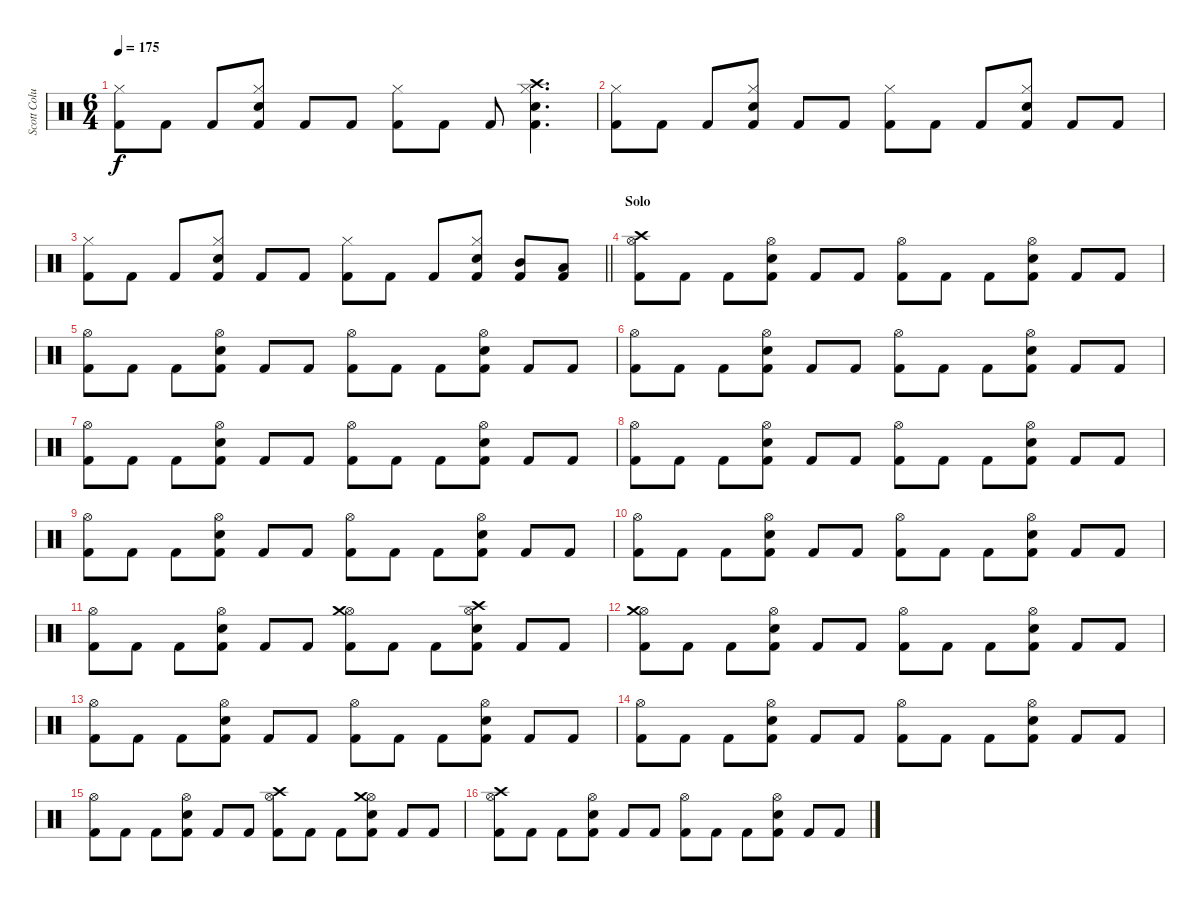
\track ("Scott Columbus" "Scott Colu") {instrument percussion}
\staff {score}
\articulation defaults
\ts (6 4)
\tempo 175
\clef neutral
\ks c
("Kick (hit) 2" "Hi-Hat (closed)").8{dy f} "Kick (hit) 2".8 "Kick (hit) 2".8 ("Kick (hit) 2" "Snare (hit) 2" "Hi-Hat (closed)").8 "Kick (hit) 2".8 "Kick (hit) 2".8 ("Kick (hit) 2" "Hi-Hat (closed)").8 "Kick (hit) 2".8 "Kick (hit) 2".8 ("Kick (hit) 2" "Snare (hit) 2" "Hi-Hat (closed)" "Crash high (hit)").4{d} |
("Kick (hit) 2" "Hi-Hat (closed)").8 "Kick (hit) 2".8 "Kick (hit) 2".8 ("Kick (hit) 2" "Snare (hit) 2" "Hi-Hat (closed)").8 "Kick (hit) 2".8 "Kick (hit) 2".8 ("Kick (hit) 2" "Hi-Hat (closed)").8 "Kick (hit) 2".8 "Kick (hit) 2".8 ("Kick (hit) 2" "Snare (hit) 2" "Hi-Hat (closed)").8 "Kick (hit) 2".8 "Kick (hit) 2".8 |
\barLineRight lightlight
("Kick (hit) 2" "Hi-Hat (closed)").8 "Kick (hit) 2".8 "Kick (hit) 2".8 ("Kick (hit) 2" "Snare (hit) 2" "Hi-Hat (closed)").8 "Kick (hit) 2".8 "Kick (hit) 2".8 ("Kick (hit) 2" "Hi-Hat (closed)").8 "Kick (hit) 2".8 "Kick (hit) 2".8 ("Kick (hit) 2" "Snare (hit) 2" "Hi-Hat (closed)").8 ("Kick (hit) 2" "Mid Tom (hit)").8 ("Kick (hit) 2" "Low Tom (hit)").8 |
\section ("" "Solo")
("Kick (hit) 2" "Hi-Hat (open)" "Crash high (hit)").8 "Kick (hit) 2".8 "Kick (hit) 2".8 ("Kick (hit) 2" "Snare (hit) 2" "Hi-Hat (open)").8 "Kick (hit) 2".8 "Kick (hit) 2".8 ("Kick (hit) 2" "Hi-Hat (open)").8 "Kick (hit) 2".8 "Kick (hit) 2".8 ("Kick (hit) 2" "Snare (hit) 2" "Hi-Hat (open)").8 "Kick (hit) 2".8 "Kick (hit) 2".8 |
("Kick (hit) 2" "Hi-Hat (open)").8 "Kick (hit) 2".8 "Kick (hit) 2".8 ("Kick (hit) 2" "Snare (hit) 2" "Hi-Hat (open)").8 "Kick (hit) 2".8 "Kick (hit) 2".8 ("Kick (hit) 2" "Hi-Hat (open)").8 "Kick (hit) 2".8 "Kick (hit) 2".8 ("Kick (hit) 2" "Snare (hit) 2" "Hi-Hat (open)").8 "Kick (hit) 2".8 "Kick (hit) 2".8 |
("Kick (hit) 2" "Hi-Hat (open)").8 "Kick (hit) 2".8 "Kick (hit) 2".8 ("Kick (hit) 2" "Snare (hit) 2" "Hi-Hat (open)").8 "Kick (hit) 2".8 "Kick (hit) 2".8 ("Kick (hit) 2" "Hi-Hat (open)").8 "Kick (hit) 2".8 "Kick (hit) 2".8 ("Kick (hit) 2" "Snare (hit) 2" "Hi-Hat (open)").8 "Kick (hit) 2".8 "Kick (hit) 2".8 |
("Kick (hit) 2" "Hi-Hat (open)").8 "Kick (hit) 2".8 "Kick (hit) 2".8 ("Kick (hit) 2" "Snare (hit) 2" "Hi-Hat (open)").8 "Kick (hit) 2".8 "Kick (hit) 2".8 ("Kick (hit) 2" "Hi-Hat (open)").8 "Kick (hit) 2".8 "Kick (hit) 2".8 ("Kick (hit) 2" "Snare (hit) 2" "Hi-Hat (open)").8 "Kick (hit) 2".8 "Kick (hit) 2".8 |
("Kick (hit) 2" "Hi-Hat (open)").8 "Kick (hit) 2".8 "Kick (hit) 2".8 ("Kick (hit) 2" "Snare (hit) 2" "Hi-Hat (open)").8 "Kick (hit) 2".8 "Kick (hit) 2".8 ("Kick (hit) 2" "Hi-Hat (open)").8 "Kick (hit) 2".8 "Kick (hit) 2".8 ("Kick (hit) 2" "Snare (hit) 2" "Hi-Hat (open)").8 "Kick (hit) 2".8 "Kick (hit) 2".8 |
("Kick (hit) 2" "Hi-Hat (open)").8 "Kick (hit) 2".8 "Kick (hit) 2".8 ("Kick (hit) 2" "Snare (hit) 2" "Hi-Hat (open)").8 "Kick (hit) 2".8 "Kick (hit) 2".8 ("Kick (hit) 2" "Hi-Hat (open)").8 "Kick (hit) 2".8 "Kick (hit) 2".8 ("Kick (hit) 2" "Snare (hit) 2" "Hi-Hat (open)").8 "Kick (hit) 2".8 "Kick (hit) 2".8 |
("Kick (hit) 2" "Hi-Hat (open)").8 "Kick (hit) 2".8 "Kick (hit) 2".8 ("Kick (hit) 2" "Snare (hit) 2" "Hi-Hat (open)").8 "Kick (hit) 2".8 "Kick (hit) 2".8 ("Kick (hit) 2" "Hi-Hat (open)").8 "Kick (hit) 2".8 "Kick (hit) 2".8 ("Kick (hit) 2" "Snare (hit) 2" "Hi-Hat (open)").8 "Kick (hit) 2".8 "Kick (hit) 2".8 |
("Kick (hit) 2" "Hi-Hat (open)").8 "Kick (hit) 2".8 "Kick (hit) 2".8 ("Kick (hit) 2" "Snare (hit) 2" "Hi-Hat (open)").8 "Kick (hit) 2".8 "Kick (hit) 2".8 ("Kick (hit) 2" "Hi-Hat (open)" "Crash medium (hit)").8 "Kick (hit) 2".8 "Kick (hit) 2".8 ("Kick (hit) 2" "Snare (hit) 2" "Hi-Hat (open)" "Crash high (hit)").8 "Kick (hit) 2".8 "Kick (hit) 2".8 |
("Kick (hit) 2" "Hi-Hat (open)" "Crash medium (hit)").8 "Kick (hit) 2".8 "Kick (hit) 2".8 ("Kick (hit) 2" "Snare (hit) 2" "Hi-Hat (open)").8 "Kick (hit) 2".8 "Kick (hit) 2".8 ("Kick (hit) 2" "Hi-Hat (open)").8 "Kick (hit) 2".8 "Kick (hit) 2".8 ("Kick (hit) 2" "Snare (hit) 2" "Hi-Hat (open)").8 "Kick (hit) 2".8 "Kick (hit) 2".8 |
("Kick (hit) 2" "Hi-Hat (open)").8 "Kick (hit) 2".8 "Kick (hit) 2".8 ("Kick (hit) 2" "Snare (hit) 2" "Hi-Hat (open)").8 "Kick (hit) 2".8 "Kick (hit) 2".8 ("Kick (hit) 2" "Hi-Hat (open)").8 "Kick (hit) 2".8 "Kick (hit) 2".8 ("Kick (hit) 2" "Snare (hit) 2" "Hi-Hat (open)").8 "Kick (hit) 2".8 "Kick (hit) 2".8 |
("Kick (hit) 2" "Hi-Hat (open)").8 "Kick (hit) 2".8 "Kick (hit) 2".8 ("Kick (hit) 2" "Snare (hit) 2" "Hi-Hat (open)").8 "Kick (hit) 2".8 "Kick (hit) 2".8 ("Kick (hit) 2" "Hi-Hat (open)").8 "Kick (hit) 2".8 "Kick (hit) 2".8 ("Kick (hit) 2" "Snare (hit) 2" "Hi-Hat (open)").8 "Kick (hit) 2".8 "Kick (hit) 2".8 |
("Kick (hit) 2" "Hi-Hat (open)").8 "Kick (hit) 2".8 "Kick (hit) 2".8 ("Kick (hit) 2" "Snare (hit) 2" "Hi-Hat (open)").8 "Kick (hit) 2".8 "Kick (hit) 2".8 ("Kick (hit) 2" "Hi-Hat (open)" "Crash high (hit)").8 "Kick (hit) 2".8 "Kick (hit) 2".8 ("Kick (hit) 2" "Snare (hit) 2" "Hi-Hat (open)" "Crash medium (hit)").8 "Kick (hit) 2".8 "Kick (hit) 2".8 |
("Kick (hit) 2" "Hi-Hat (open)" "Crash high (hit)").8 "Kick (hit) 2".8 "Kick (hit) 2".8 ("Kick (hit) 2" "Snare (hit) 2" "Hi-Hat (open)").8 "Kick (hit) 2".8 "Kick (hit) 2".8 ("Kick (hit) 2" "Hi-Hat (open)").8 "Kick (hit) 2".8 "Kick (hit) 2".8 ("Kick (hit) 2" "Snare (hit) 2" "Hi-Hat (open)").8 "Kick (hit) 2".8 "Kick (hit) 2".8
